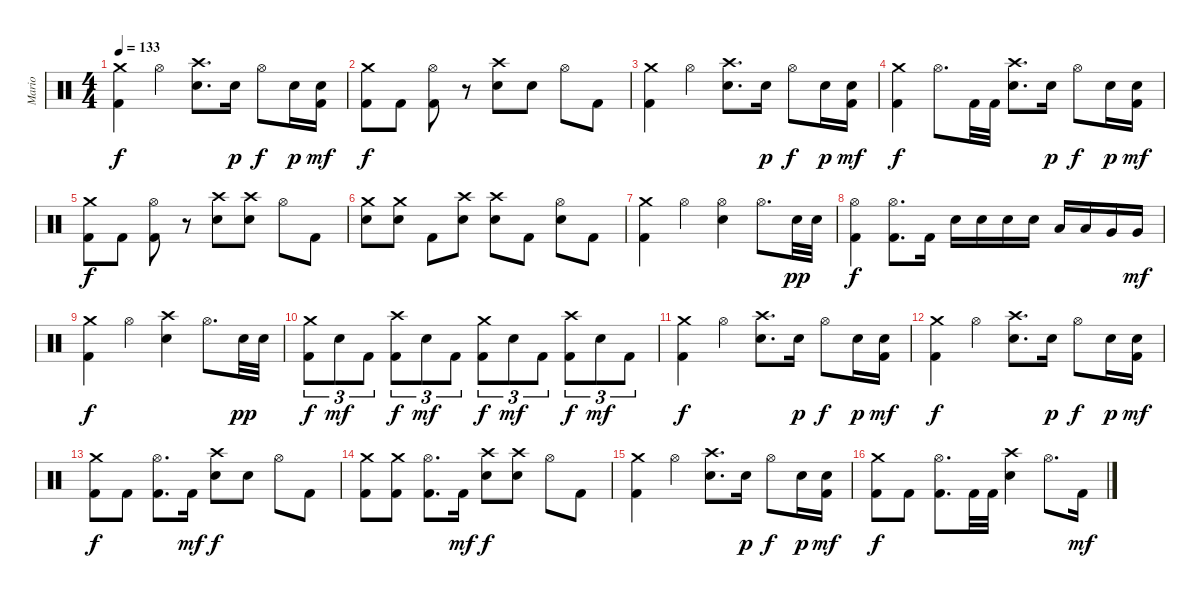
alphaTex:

\track ("Mario" "Mario") {instrument percussion}
\staff {score}
\articulation defaults
\ts (4 4)
\tempo 133
\clef neutral
\ks c
("Crash medium (hit)" "Kick (hit) 2").4{dy f} "Hi-Hat (open)".4 ("Crash high (hit)" "Electric Snare (hit)").8{d} "Electric Snare (hit)".16{dy p} "Hi-Hat (open)".8{dy f} "Electric Snare (hit)".16{dy p} ("Electric Snare (hit)" "Kick (hit) 2").16{dy mf} |
("Crash medium (hit)" "Kick (hit) 2").8{dy f} "Kick (hit) 2".8 ("Hi-Hat (open)" "Kick (hit) 2").8 r.8 ("Crash high (hit)" "Electric Snare (hit)").8 "Electric Snare (hit)".8 "Hi-Hat (open)".8 "Kick (hit) 2".8 |
("Crash medium (hit)" "Kick (hit) 2").4 "Hi-Hat (open)".4 ("Crash high (hit)" "Electric Snare (hit)").8{d} "Electric Snare (hit)".16{dy p} "Hi-Hat (open)".8{dy f} "Electric Snare (hit)".16{dy p} ("Electric Snare (hit)" "Kick (hit) 2").16{dy mf} |
("Crash medium (hit)" "Kick (hit) 2").4{dy f} "Hi-Hat (open)".8{d} "Kick (hit) 2".32 "Kick (hit) 2".32 ("Crash high (hit)" "Electric Snare (hit)").8{d} "Electric Snare (hit)".16{dy p} "Hi-Hat (open)".8{dy f} "Electric Snare (hit)".16{dy p} ("Electric Snare (hit)" "Kick (hit) 2").16{dy mf} |
("Crash medium (hit)" "Kick (hit) 2").8{dy f} "Kick (hit) 2".8 ("Hi-Hat (open)" "Kick (hit) 2").8 r.8 ("Crash high (hit)" "Electric Snare (hit)").8 ("Crash high (hit)" "Electric Snare (hit)").8 "Hi-Hat (open)".8 "Kick (hit) 2".8 |
("Crash medium (hit)" "Electric Snare (hit)").8 ("Crash medium (hit)" "Electric Snare (hit)").8 "Kick (hit) 2".8 ("Crash high (hit)" "Electric Snare (hit)").8 ("Crash high (hit)" "Electric Snare (hit)").8 "Kick (hit) 2".8 ("Hi-Hat (open)" "Electric Snare (hit)").8 "Kick (hit) 2".8 |
("Crash medium (hit)" "Kick (hit) 2").4 "Hi-Hat (open)".4 ("Hi-Hat (open)" "Electric Snare (hit)").4 "Hi-Hat (open)".8{d} "Electric Snare (hit)".32{dy pp} "Electric Snare (hit)".32 |
("Hi-Hat (open)" "Kick (hit) 2").4{dy f} ("Hi-Hat (open)" "Kick (hit) 2").8{d} "Kick (hit) 2".16 "Electric Snare (hit)".16 "Electric Snare (hit)".16 "Electric Snare (hit)".16 "Electric Snare (hit)".16 "Low Tom (hit)".16 "Low Tom (hit)".16 "Very Low Tom (hit)".16 "Very Low Tom (hit)".16{dy mf} |
("Crash medium (hit)" "Kick (hit) 2").4{dy f} "Hi-Hat (open)".4 ("Crash high (hit)" "Electric Snare (hit)").4 "Hi-Hat (open)".8{d} "Electric Snare (hit)".32{dy pp} "Electric Snare (hit)".32 |
("Crash medium (hit)" "Kick (hit) 2").8{tu (3 2) dy f} "Electric Snare (hit)".8{tu (3 2) dy mf} "Kick (hit) 2".8{tu (3 2)} ("Crash high (hit)" "Kick (hit) 2").8{tu (3 2) dy f} "Electric Snare (hit)".8{tu (3 2) dy mf} "Kick (hit) 2".8{tu (3 2)} ("Crash medium (hit)" "Kick (hit) 2").8{tu (3 2) dy f} "Electric Snare (hit)".8{tu (3 2) dy mf} "Kick (hit) 2".8{tu (3 2)} ("Crash high (hit)" "Kick (hit) 2").8{tu (3 2) dy f} "Electric Snare (hit)".8{tu (3 2) dy mf} "Kick (hit) 2".8{tu (3 2)} |
("Crash medium (hit)" "Kick (hit) 2").4{dy f} "Hi-Hat (open)".4 ("Crash high (hit)" "Electric Snare (hit)").8{d} "Electric Snare (hit)".16{dy p} "Hi-Hat (open)".8{dy f} "Electric Snare (hit)".16{dy p} ("Electric Snare (hit)" "Kick (hit) 2").16{dy mf} |
("Crash medium (hit)" "Kick (hit) 2").4{dy f} "Hi-Hat (open)".4 ("Crash high (hit)" "Electric Snare (hit)").8{d} "Electric Snare (hit)".16{dy p} "Hi-Hat (open)".8{dy f} "Electric Snare (hit)".16{dy p} ("Electric Snare (hit)" "Kick (hit) 2").16{dy mf} |
("Crash medium (hit)" "Kick (hit) 2").8{dy f} "Kick (hit) 2".8 ("Hi-Hat (open)" "Kick (hit) 2").8{d} "Kick (hit) 2".16{dy mf} ("Crash high (hit)" "Electric Snare (hit)").8{dy f} "Electric Snare (hit)".8 "Hi-Hat (open)".8 "Kick (hit) 2".8 |
("Crash medium (hit)" "Kick (hit) 2").8 ("Crash medium (hit)" "Kick (hit) 2").8 ("Hi-Hat (open)" "Kick (hit) 2").8{d} "Kick (hit) 2".16{dy mf} ("Crash high (hit)" "Electric Snare (hit)").8{dy f} ("Crash high (hit)" "Electric Snare (hit)").8 "Hi-Hat (open)".8 "Kick (hit) 2".8 |
("Crash medium (hit)" "Kick (hit) 2").4 "Hi-Hat (open)".4 ("Crash high (hit)" "Electric Snare (hit)").8{d} "Electric Snare (hit)".16{dy p} "Hi-Hat (open)".8{dy f} "Electric Snare (hit)".16{dy p} ("Electric Snare (hit)" "Kick (hit) 2").16{dy mf} |
("Crash medium (hit)" "Kick (hit) 2").8{dy f} "Kick (hit) 2".8 ("Hi-Hat (open)" "Kick (hit) 2").8{d} "Kick (hit) 2".32 "Kick (hit) 2".32 ("Crash high (hit)" "Electric Snare (hit)").4 "Hi-Hat (open)".8{d} "Kick (hit) 2".16{dy mf}
